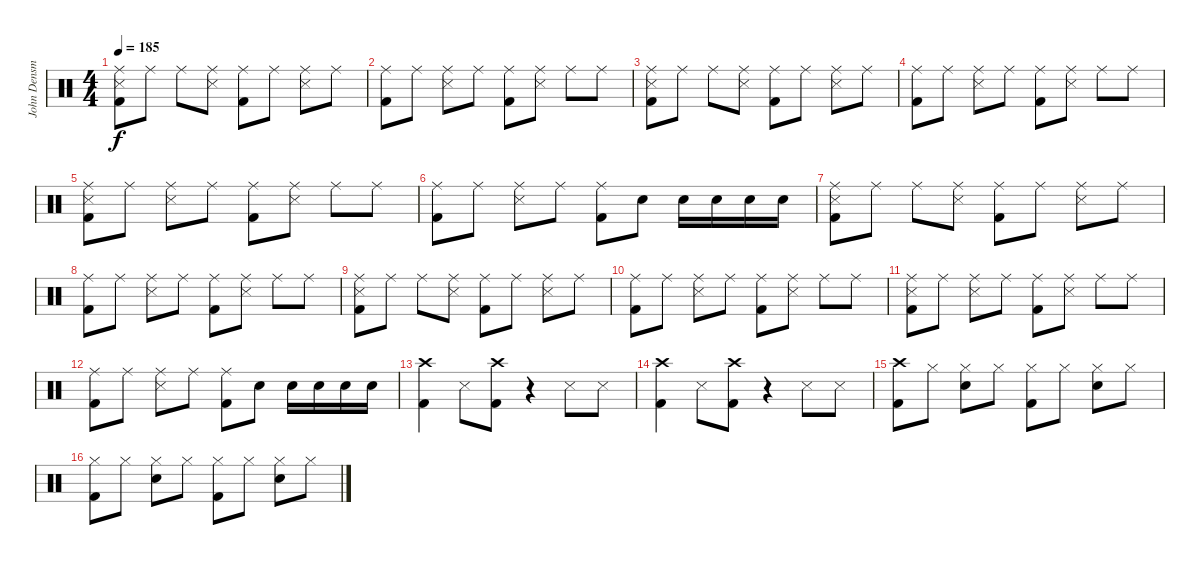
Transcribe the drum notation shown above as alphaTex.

\track ("John Densmore - Drums" "John Densm") {instrument percussion}
\staff {score}
\articulation defaults
\ts (4 4)
\tempo 185
\clef neutral
\ks c
("Ride (middle)" "Snare (side stick) 3" "Kick (hit) 2").8{dy f} "Ride (middle)".8 "Ride (middle)".8 ("Ride (middle)" "Snare (side stick) 3").8 ("Ride (middle)" "Kick (hit) 2").8 "Ride (middle)".8 ("Ride (middle)" "Snare (side stick) 3").8 "Ride (middle)".8 |
("Ride (middle)" "Kick (hit) 2").8 "Ride (middle)".8 ("Ride (middle)" "Snare (side stick) 3").8 "Ride (middle)".8 ("Ride (middle)" "Kick (hit) 2").8 ("Ride (middle)" "Snare (side stick) 3").8 "Ride (middle)".8 "Ride (middle)".8 |
("Ride (middle)" "Snare (side stick) 3" "Kick (hit) 2").8 "Ride (middle)".8 "Ride (middle)".8 ("Ride (middle)" "Snare (side stick) 3").8 ("Ride (middle)" "Kick (hit) 2").8 "Ride (middle)".8 ("Ride (middle)" "Snare (side stick) 3").8 "Ride (middle)".8 |
("Ride (middle)" "Kick (hit) 2").8 "Ride (middle)".8 ("Ride (middle)" "Snare (side stick) 3").8 "Ride (middle)".8 ("Ride (middle)" "Kick (hit) 2").8 ("Ride (middle)" "Snare (side stick) 3").8 "Ride (middle)".8 "Ride (middle)".8 |
("Ride (middle)" "Snare (side stick) 3" "Kick (hit) 2").8 "Ride (middle)".8 ("Ride (middle)" "Snare (side stick) 3").8 "Ride (middle)".8 ("Ride (middle)" "Kick (hit) 2").8 ("Ride (middle)" "Snare (side stick) 3").8 "Ride (middle)".8 "Ride (middle)".8 |
("Ride (middle)" "Kick (hit) 2").8 "Ride (middle)".8 ("Ride (middle)" "Snare (side stick) 3").8 "Ride (middle)".8 ("Ride (middle)" "Kick (hit) 2").8 "Snare (hit) 2".8 "Snare (hit) 2".16 "Snare (hit) 2".16 "Snare (hit) 2".16 "Snare (hit) 2".16 |
("Ride (middle)" "Snare (side stick) 3" "Kick (hit) 2").8 "Ride (middle)".8 "Ride (middle)".8 ("Ride (middle)" "Snare (side stick) 3").8 ("Ride (middle)" "Kick (hit) 2").8 "Ride (middle)".8 ("Ride (middle)" "Snare (side stick) 3").8 "Ride (middle)".8 |
("Ride (middle)" "Kick (hit) 2").8 "Ride (middle)".8 ("Ride (middle)" "Snare (side stick) 3").8 "Ride (middle)".8 ("Ride (middle)" "Kick (hit) 2").8 ("Ride (middle)" "Snare (side stick) 3").8 "Ride (middle)".8 "Ride (middle)".8 |
("Ride (middle)" "Snare (side stick) 3" "Kick (hit) 2").8 "Ride (middle)".8 "Ride (middle)".8 ("Ride (middle)" "Snare (side stick) 3").8 ("Ride (middle)" "Kick (hit) 2").8 "Ride (middle)".8 ("Ride (middle)" "Snare (side stick) 3").8 "Ride (middle)".8 |
("Ride (middle)" "Kick (hit) 2").8 "Ride (middle)".8 ("Ride (middle)" "Snare (side stick) 3").8 "Ride (middle)".8 ("Ride (middle)" "Kick (hit) 2").8 ("Ride (middle)" "Snare (side stick) 3").8 "Ride (middle)".8 "Ride (middle)".8 |
("Ride (middle)" "Snare (side stick) 3" "Kick (hit) 2").8 "Ride (middle)".8 ("Ride (middle)" "Snare (side stick) 3").8 "Ride (middle)".8 ("Ride (middle)" "Kick (hit) 2").8 ("Ride (middle)" "Snare (side stick) 3").8 "Ride (middle)".8 "Ride (middle)".8 |
("Ride (middle)" "Kick (hit) 2").8 "Ride (middle)".8 ("Ride (middle)" "Snare (side stick) 3").8 "Ride (middle)".8 ("Ride (middle)" "Kick (hit) 2").8 "Snare (hit) 2".8 "Snare (hit) 2".16 "Snare (hit) 2".16 "Snare (hit) 2".16 "Snare (hit) 2".16 |
("Crash high (hit)" "Kick (hit) 2").4 "Snare (side stick) 3".8 ("Crash high (hit)" "Kick (hit) 2").8 r.4 "Snare (side stick) 3".8 "Snare (side stick) 3".8 |
("Crash high (hit)" "Kick (hit) 2").4 "Snare (side stick) 3".8 ("Crash high (hit)" "Kick (hit) 2").8 r.4 "Snare (side stick) 3".8 "Snare (side stick) 3".8 |
("Crash high (hit)" "Kick (hit) 2").8 "Hi-Hat (closed)".8 ("Hi-Hat (closed)" "Snare (hit) 2").8 "Hi-Hat (closed)".8 ("Hi-Hat (closed)" "Kick (hit) 2").8 "Hi-Hat (closed)".8 ("Hi-Hat (closed)" "Snare (hit) 2").8 "Hi-Hat (closed)".8 |
("Hi-Hat (closed)" "Kick (hit) 2").8 "Hi-Hat (closed)".8 ("Hi-Hat (closed)" "Snare (hit) 2").8 "Hi-Hat (closed)".8 ("Hi-Hat (closed)" "Kick (hit) 2").8 "Hi-Hat (closed)".8 ("Hi-Hat (closed)" "Snare (hit) 2").8 "Hi-Hat (closed)".8
